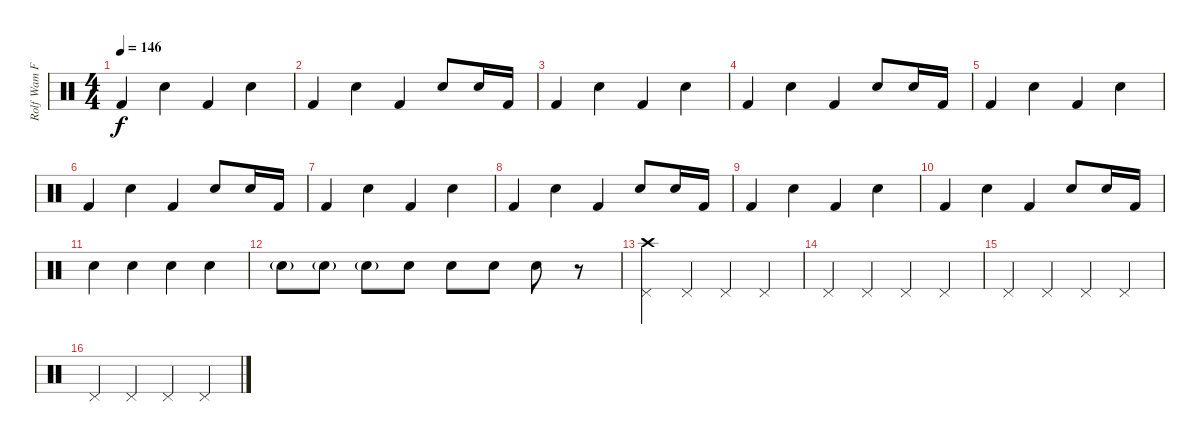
\track ("Rolf Wam Fjell" "Rolf Wam F") {instrument percussion}
\staff {score}
\articulation defaults
\ts (4 4)
\tempo 146
\clef neutral
\ks c "Kick (hit) 2".4{dy f} "Electric Snare (hit)".4 "Kick (hit) 2".4 "Electric Snare (hit)".4
|
"Kick (hit) 2".4 "Electric Snare (hit)".4 "Kick (hit) 2".4 "Electric Snare (hit)".8 "Electric Snare (hit)".16 "Kick (hit) 2".16 |
"Kick (hit) 2".4 "Electric Snare (hit)".4 "Kick (hit) 2".4 "Electric Snare (hit)".4 |
"Kick (hit) 2".4 "Electric Snare (hit)".4 "Kick (hit) 2".4 "Electric Snare (hit)".8 "Electric Snare (hit)".16 "Kick (hit) 2".16 |
"Kick (hit) 2".4 "Electric Snare (hit)".4 "Kick (hit) 2".4 "Electric Snare (hit)".4 |
"Kick (hit) 2".4 "Electric Snare (hit)".4 "Kick (hit) 2".4 "Electric Snare (hit)".8 "Electric Snare (hit)".16 "Kick (hit) 2".16 |
"Kick (hit) 2".4 "Electric Snare (hit)".4 "Kick (hit) 2".4 "Electric Snare (hit)".4 |
"Kick (hit) 2".4 "Electric Snare (hit)".4 "Kick (hit) 2".4 "Electric Snare (hit)".8 "Electric Snare (hit)".16 "Kick (hit) 2".16 |
"Kick (hit) 2".4 "Electric Snare (hit)".4 "Kick (hit) 2".4 "Electric Snare (hit)".4 |
"Kick (hit) 2".4 "Electric Snare (hit)".4 "Kick (hit) 2".4 "Electric Snare (hit)".8 "Electric Snare (hit)".16 "Kick (hit) 2".16 |
"Electric Snare (hit)".4 "Electric Snare (hit)".4 "Electric Snare (hit)".4 "Electric Snare (hit)".4 |
"Electric Snare (hit)"{g}.8 "Electric Snare (hit)"{g}.8 "Electric Snare (hit)"{g}.8 "Electric Snare (hit)".8 "Electric Snare (hit)".8 "Electric Snare (hit)".8 "Electric Snare (hit)".8 r.8 |
("Pedal Hi-Hat (hit)" "Crash high (hit)").4 "Pedal Hi-Hat (hit)".4 "Pedal Hi-Hat (hit)".4 "Pedal Hi-Hat (hit)".4 |
"Pedal Hi-Hat (hit)".4 "Pedal Hi-Hat (hit)".4 "Pedal Hi-Hat (hit)".4 "Pedal Hi-Hat (hit)".4 |
"Pedal Hi-Hat (hit)".4 "Pedal Hi-Hat (hit)".4 "Pedal Hi-Hat (hit)".4 "Pedal Hi-Hat (hit)".4 |
"Pedal Hi-Hat (hit)".4 "Pedal Hi-Hat (hit)".4 "Pedal Hi-Hat (hit)".4 "Pedal Hi-Hat (hit)".4
